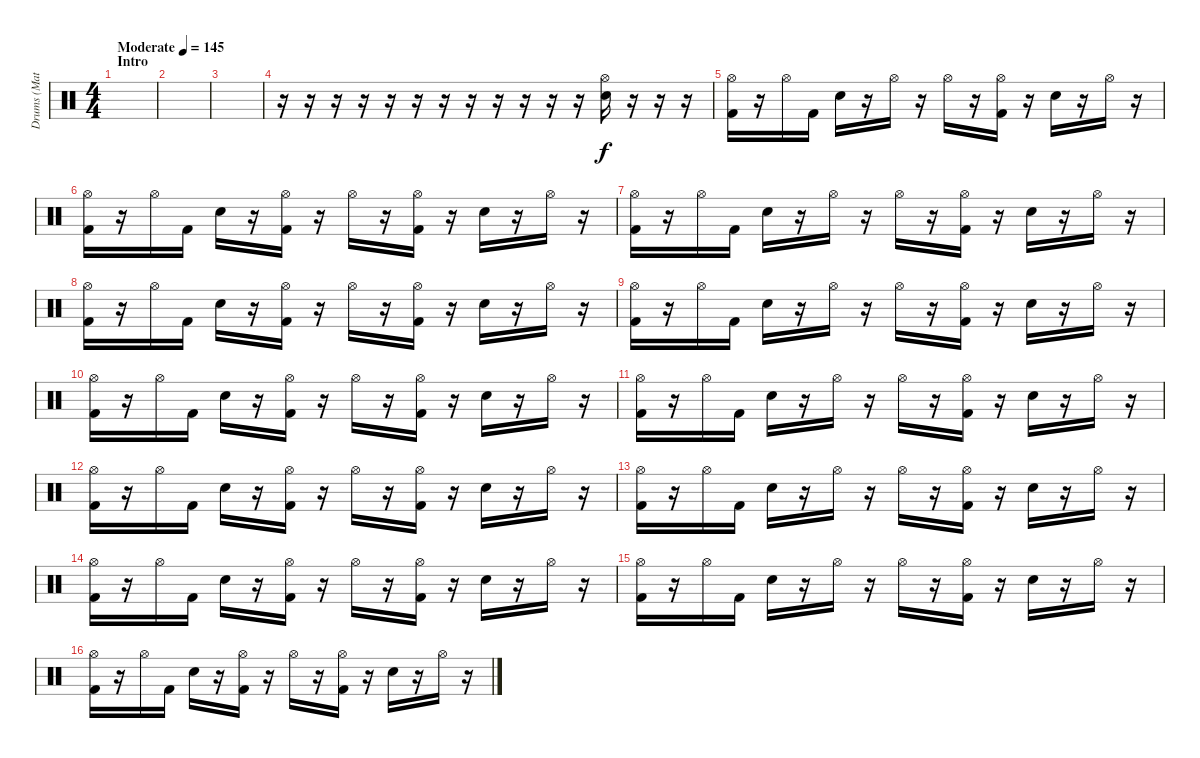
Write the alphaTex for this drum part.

\track ("Drums (Matt)" "Drums (Mat") {instrument percussion}
\staff {score}
\articulation defaults
\ts (4 4)
\section ("" "Intro")
\tempo (145 "Moderate")
\clef neutral
\ks c
|
|
|
r.16 r.16 r.16 r.16 r.16 r.16 r.16 r.16 r.16 r.16 r.16 r.16 ("Hi-Hat (open)" "Snare (hit) 2").16 r.16 r.16 r.16 |
("Hi-Hat (open)" "Kick (hit) 2").16 r.16 "Hi-Hat (open)".16 "Kick (hit) 2".16 "Electric Snare (hit)".16 r.16 "Hi-Hat (open)".16 r.16 "Hi-Hat (open)".16 r.16 ("Hi-Hat (open)" "Kick (hit) 2").16 r.16 "Electric Snare (hit)".16 r.16 "Hi-Hat (open)".16 r.16 |
("Hi-Hat (open)" "Kick (hit) 2").16 r.16 "Hi-Hat (open)".16 "Kick (hit) 2".16 "Electric Snare (hit)".16 r.16 ("Hi-Hat (open)" "Kick (hit) 2").16 r.16 "Hi-Hat (open)".16 r.16 ("Hi-Hat (open)" "Kick (hit) 2").16 r.16 "Electric Snare (hit)".16 r.16 "Hi-Hat (open)".16 r.16 |
("Hi-Hat (open)" "Kick (hit) 2").16 r.16 "Hi-Hat (open)".16 "Kick (hit) 2".16 "Electric Snare (hit)".16 r.16 "Hi-Hat (open)".16 r.16 "Hi-Hat (open)".16 r.16 ("Hi-Hat (open)" "Kick (hit) 2").16 r.16 "Electric Snare (hit)".16 r.16 "Hi-Hat (open)".16 r.16 |
("Hi-Hat (open)" "Kick (hit) 2").16 r.16 "Hi-Hat (open)".16 "Kick (hit) 2".16 "Electric Snare (hit)".16 r.16 ("Hi-Hat (open)" "Kick (hit) 2").16 r.16 "Hi-Hat (open)".16 r.16 ("Hi-Hat (open)" "Kick (hit) 2").16 r.16 "Electric Snare (hit)".16 r.16 "Hi-Hat (open)".16 r.16 |
("Hi-Hat (open)" "Kick (hit) 2").16 r.16 "Hi-Hat (open)".16 "Kick (hit) 2".16 "Electric Snare (hit)".16 r.16 "Hi-Hat (open)".16 r.16 "Hi-Hat (open)".16 r.16 ("Hi-Hat (open)" "Kick (hit) 2").16 r.16 "Electric Snare (hit)".16 r.16 "Hi-Hat (open)".16 r.16 |
("Hi-Hat (open)" "Kick (hit) 2").16 r.16 "Hi-Hat (open)".16 "Kick (hit) 2".16 "Electric Snare (hit)".16 r.16 ("Hi-Hat (open)" "Kick (hit) 2").16 r.16 "Hi-Hat (open)".16 r.16 ("Hi-Hat (open)" "Kick (hit) 2").16 r.16 "Electric Snare (hit)".16 r.16 "Hi-Hat (open)".16 r.16 |
("Hi-Hat (open)" "Kick (hit) 2").16 r.16 "Hi-Hat (open)".16 "Kick (hit) 2".16 "Electric Snare (hit)".16 r.16 "Hi-Hat (open)".16 r.16 "Hi-Hat (open)".16 r.16 ("Hi-Hat (open)" "Kick (hit) 2").16 r.16 "Electric Snare (hit)".16 r.16 "Hi-Hat (open)".16 r.16 |
("Hi-Hat (open)" "Kick (hit) 2").16 r.16 "Hi-Hat (open)".16 "Kick (hit) 2".16 "Electric Snare (hit)".16 r.16 ("Hi-Hat (open)" "Kick (hit) 2").16 r.16 "Hi-Hat (open)".16 r.16 ("Hi-Hat (open)" "Kick (hit) 2").16 r.16 "Electric Snare (hit)".16 r.16 "Hi-Hat (open)".16 r.16 |
("Hi-Hat (open)" "Kick (hit) 2").16 r.16 "Hi-Hat (open)".16 "Kick (hit) 2".16 "Electric Snare (hit)".16 r.16 "Hi-Hat (open)".16 r.16 "Hi-Hat (open)".16 r.16 ("Hi-Hat (open)" "Kick (hit) 2").16 r.16 "Electric Snare (hit)".16 r.16 "Hi-Hat (open)".16 r.16 |
("Hi-Hat (open)" "Kick (hit) 2").16 r.16 "Hi-Hat (open)".16 "Kick (hit) 2".16 "Electric Snare (hit)".16 r.16 ("Hi-Hat (open)" "Kick (hit) 2").16 r.16 "Hi-Hat (open)".16 r.16 ("Hi-Hat (open)" "Kick (hit) 2").16 r.16 "Electric Snare (hit)".16 r.16 "Hi-Hat (open)".16 r.16 |
("Hi-Hat (open)" "Kick (hit) 2").16 r.16 "Hi-Hat (open)".16 "Kick (hit) 2".16 "Electric Snare (hit)".16 r.16 "Hi-Hat (open)".16 r.16 "Hi-Hat (open)".16 r.16 ("Hi-Hat (open)" "Kick (hit) 2").16 r.16 "Electric Snare (hit)".16 r.16 "Hi-Hat (open)".16 r.16 |
("Hi-Hat (open)" "Kick (hit) 2").16 r.16 "Hi-Hat (open)".16 "Kick (hit) 2".16 "Electric Snare (hit)".16 r.16 ("Hi-Hat (open)" "Kick (hit) 2").16 r.16 "Hi-Hat (open)".16 r.16 ("Hi-Hat (open)" "Kick (hit) 2").16 r.16 "Electric Snare (hit)".16 r.16 "Hi-Hat (open)".16 r.16
